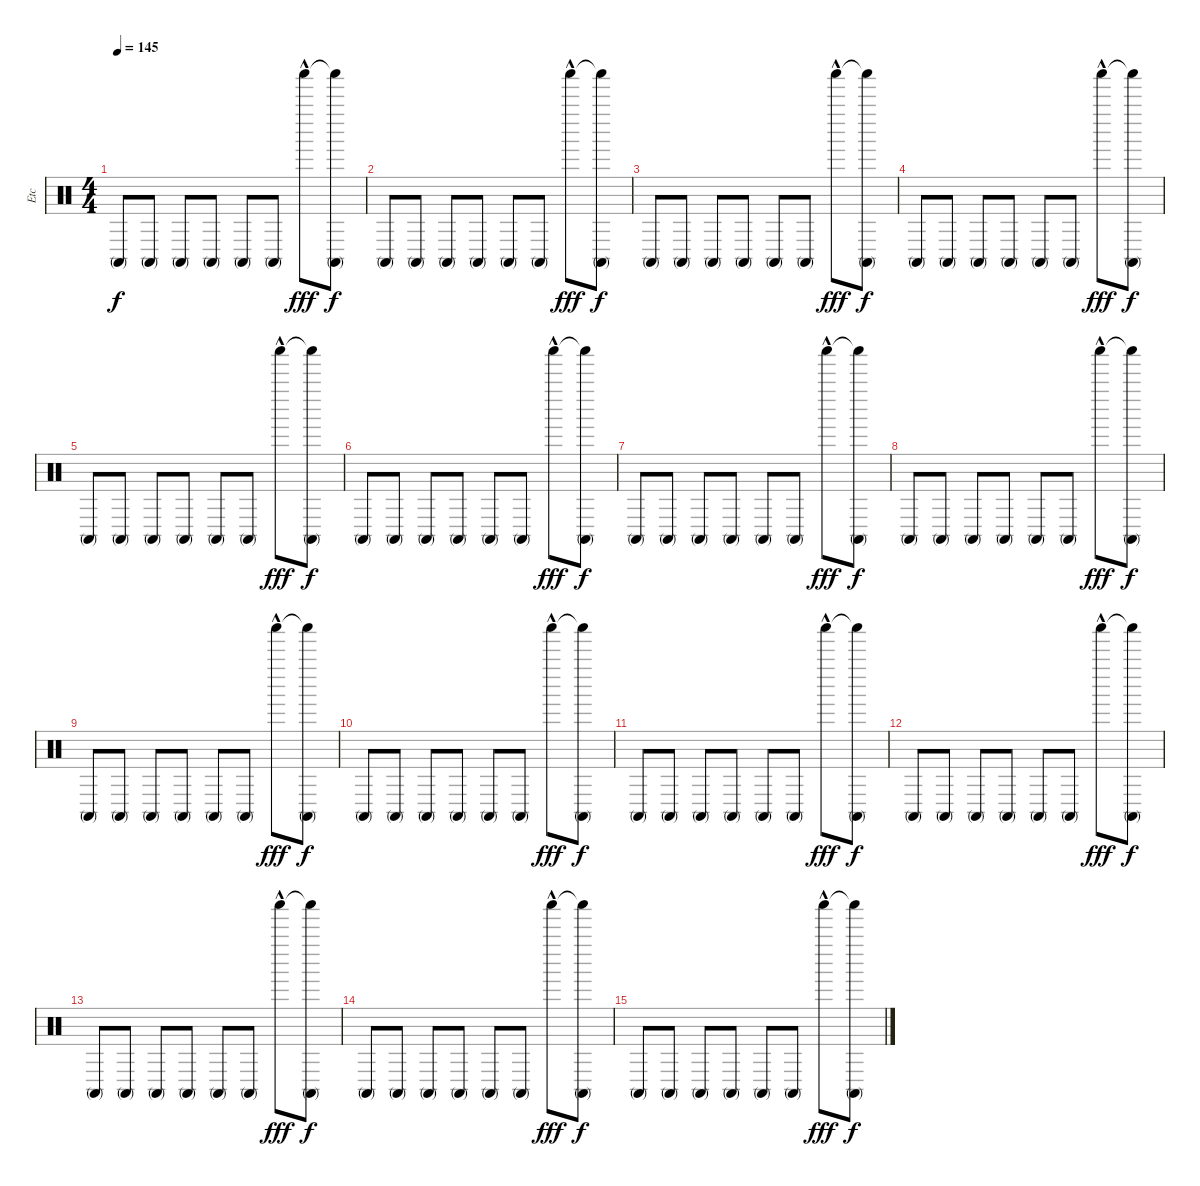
\track ("Etc" "Etc") {instrument percussion}
\staff {score}
\articulation defaults
\ts (4 4)
\tempo 145
\clef neutral
\ks c "Conga high (mute)".8{dy f} "Conga high (mute)".8 "Conga high (mute)".8 "Conga high (mute)".8 "Conga high (mute)".8 "Conga high (mute)".8 "Shaker (hit)"{hac}.8{dy fff}
("Shaker (hit)"{t} "Conga high (mute)").8{dy f} |
"Conga high (mute)".8 "Conga high (mute)".8 "Conga high (mute)".8 "Conga high (mute)".8 "Conga high (mute)".8 "Conga high (mute)".8 "Shaker (hit)"{hac}.8{dy fff} ("Shaker (hit)"{t} "Conga high (mute)").8{dy f} |
"Conga high (mute)".8 "Conga high (mute)".8 "Conga high (mute)".8 "Conga high (mute)".8 "Conga high (mute)".8 "Conga high (mute)".8 "Shaker (hit)"{hac}.8{dy fff} ("Shaker (hit)"{t} "Conga high (mute)").8{dy f} |
"Conga high (mute)".8 "Conga high (mute)".8 "Conga high (mute)".8 "Conga high (mute)".8 "Conga high (mute)".8 "Conga high (mute)".8 "Shaker (hit)"{hac}.8{dy fff} ("Shaker (hit)"{t} "Conga high (mute)").8{dy f} |
"Conga high (mute)".8 "Conga high (mute)".8 "Conga high (mute)".8 "Conga high (mute)".8 "Conga high (mute)".8 "Conga high (mute)".8 "Shaker (hit)"{hac}.8{dy fff} ("Shaker (hit)"{t} "Conga high (mute)").8{dy f} |
"Conga high (mute)".8 "Conga high (mute)".8 "Conga high (mute)".8 "Conga high (mute)".8 "Conga high (mute)".8 "Conga high (mute)".8 "Shaker (hit)"{hac}.8{dy fff} ("Shaker (hit)"{t} "Conga high (mute)").8{dy f} |
"Conga high (mute)".8 "Conga high (mute)".8 "Conga high (mute)".8 "Conga high (mute)".8 "Conga high (mute)".8 "Conga high (mute)".8 "Shaker (hit)"{hac}.8{dy fff} ("Shaker (hit)"{t} "Conga high (mute)").8{dy f} |
"Conga high (mute)".8 "Conga high (mute)".8 "Conga high (mute)".8 "Conga high (mute)".8 "Conga high (mute)".8 "Conga high (mute)".8 "Shaker (hit)"{hac}.8{dy fff} ("Shaker (hit)"{t} "Conga high (mute)").8{dy f} |
"Conga high (mute)".8 "Conga high (mute)".8 "Conga high (mute)".8 "Conga high (mute)".8 "Conga high (mute)".8 "Conga high (mute)".8 "Shaker (hit)"{hac}.8{dy fff} ("Shaker (hit)"{t} "Conga high (mute)").8{dy f} |
"Conga high (mute)".8 "Conga high (mute)".8 "Conga high (mute)".8 "Conga high (mute)".8 "Conga high (mute)".8 "Conga high (mute)".8 "Shaker (hit)"{hac}.8{dy fff} ("Shaker (hit)"{t} "Conga high (mute)").8{dy f} |
"Conga high (mute)".8 "Conga high (mute)".8 "Conga high (mute)".8 "Conga high (mute)".8 "Conga high (mute)".8 "Conga high (mute)".8 "Shaker (hit)"{hac}.8{dy fff} ("Shaker (hit)"{t} "Conga high (mute)").8{dy f} |
"Conga high (mute)".8 "Conga high (mute)".8 "Conga high (mute)".8 "Conga high (mute)".8 "Conga high (mute)".8 "Conga high (mute)".8 "Shaker (hit)"{hac}.8{dy fff} ("Shaker (hit)"{t} "Conga high (mute)").8{dy f} |
"Conga high (mute)".8 "Conga high (mute)".8 "Conga high (mute)".8 "Conga high (mute)".8 "Conga high (mute)".8 "Conga high (mute)".8 "Shaker (hit)"{hac}.8{dy fff} ("Shaker (hit)"{t} "Conga high (mute)").8{dy f} |
"Conga high (mute)".8 "Conga high (mute)".8 "Conga high (mute)".8 "Conga high (mute)".8 "Conga high (mute)".8 "Conga high (mute)".8 "Shaker (hit)"{hac}.8{dy fff} ("Shaker (hit)"{t} "Conga high (mute)").8{dy f} |
"Conga high (mute)".8 "Conga high (mute)".8 "Conga high (mute)".8 "Conga high (mute)".8 "Conga high (mute)".8 "Conga high (mute)".8 "Shaker (hit)"{hac}.8{dy fff} ("Shaker (hit)"{t} "Conga high (mute)").8{dy f}
